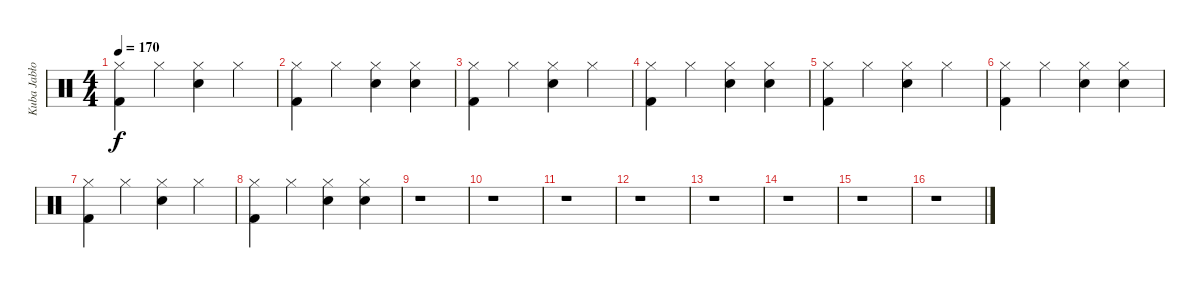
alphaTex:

\track ("Kuba Jabłoński" "Kuba Jabło") {instrument percussion}
\staff {score}
\articulation defaults
\ts (4 4)
\tempo 170
\clef neutral
\ks c
("Kick (hit) 2" "Hi-Hat (closed)").4{dy f} "Hi-Hat (closed)".4 ("Snare (hit) 2" "Hi-Hat (closed)").4 "Hi-Hat (closed)".4 |
("Kick (hit) 2" "Hi-Hat (closed)").4 "Hi-Hat (closed)".4 ("Snare (hit) 2" "Hi-Hat (closed)").4 ("Snare (hit) 2" "Hi-Hat (closed)").4 |
("Kick (hit) 2" "Hi-Hat (closed)").4 "Hi-Hat (closed)".4 ("Snare (hit) 2" "Hi-Hat (closed)").4 "Hi-Hat (closed)".4 |
("Kick (hit) 2" "Hi-Hat (closed)").4 "Hi-Hat (closed)".4 ("Snare (hit) 2" "Hi-Hat (closed)").4 ("Snare (hit) 2" "Hi-Hat (closed)").4 |
("Kick (hit) 2" "Hi-Hat (closed)").4 "Hi-Hat (closed)".4 ("Snare (hit) 2" "Hi-Hat (closed)").4 "Hi-Hat (closed)".4 |
("Kick (hit) 2" "Hi-Hat (closed)").4 "Hi-Hat (closed)".4 ("Snare (hit) 2" "Hi-Hat (closed)").4 ("Snare (hit) 2" "Hi-Hat (closed)").4 |
("Kick (hit) 2" "Hi-Hat (closed)").4 "Hi-Hat (closed)".4 ("Snare (hit) 2" "Hi-Hat (closed)").4 "Hi-Hat (closed)".4 |
("Kick (hit) 2" "Hi-Hat (closed)").4 "Hi-Hat (closed)".4 ("Snare (hit) 2" "Hi-Hat (closed)").4 ("Snare (hit) 2" "Hi-Hat (closed)").4 |
r.1 |
r.1 |
r.1 |
r.1 |
r.1 |
r.1 |
r.1 |
r.1
